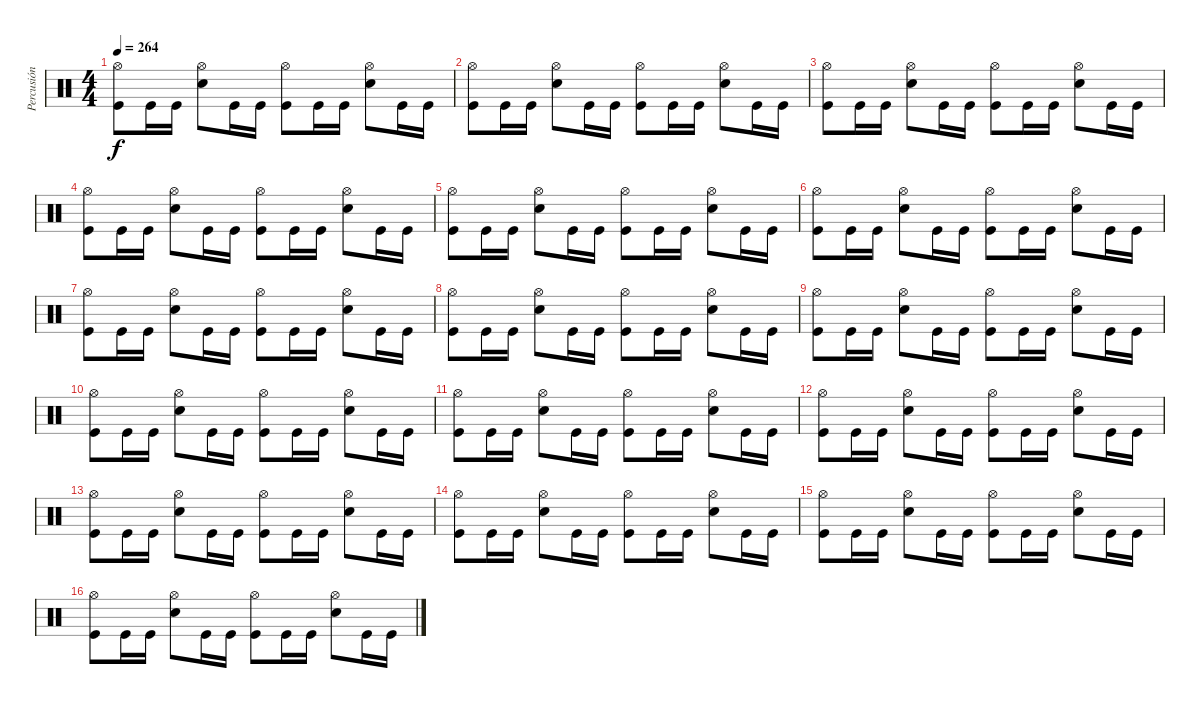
\track ("Percusión" "Percusión") {instrument percussion}
\staff {score}
\articulation defaults
\ts (4 4)
\tempo 264
\clef neutral
\ks c
("Hi-Hat (open)" "Kick (hit)").8{dy f} "Kick (hit)".16 "Kick (hit)".16 ("Hi-Hat (open)" "Snare (hit) 2").8 "Kick (hit)".16 "Kick (hit)".16 ("Hi-Hat (open)" "Kick (hit)").8 "Kick (hit)".16 "Kick (hit)".16 ("Hi-Hat (open)" "Snare (hit) 2").8 "Kick (hit)".16 "Kick (hit)".16 |
("Hi-Hat (open)" "Kick (hit)").8 "Kick (hit)".16 "Kick (hit)".16 ("Hi-Hat (open)" "Snare (hit) 2").8 "Kick (hit)".16 "Kick (hit)".16 ("Hi-Hat (open)" "Kick (hit)").8 "Kick (hit)".16 "Kick (hit)".16 ("Hi-Hat (open)" "Snare (hit) 2").8 "Kick (hit)".16 "Kick (hit)".16 |
("Hi-Hat (open)" "Kick (hit)").8 "Kick (hit)".16 "Kick (hit)".16 ("Hi-Hat (open)" "Snare (hit) 2").8 "Kick (hit)".16 "Kick (hit)".16 ("Hi-Hat (open)" "Kick (hit)").8 "Kick (hit)".16 "Kick (hit)".16 ("Hi-Hat (open)" "Snare (hit) 2").8 "Kick (hit)".16 "Kick (hit)".16 |
("Hi-Hat (open)" "Kick (hit)").8 "Kick (hit)".16 "Kick (hit)".16 ("Hi-Hat (open)" "Snare (hit) 2").8 "Kick (hit)".16 "Kick (hit)".16 ("Hi-Hat (open)" "Kick (hit)").8 "Kick (hit)".16 "Kick (hit)".16 ("Hi-Hat (open)" "Snare (hit) 2").8 "Kick (hit)".16 "Kick (hit)".16 |
("Hi-Hat (open)" "Kick (hit)").8 "Kick (hit)".16 "Kick (hit)".16 ("Hi-Hat (open)" "Snare (hit) 2").8 "Kick (hit)".16 "Kick (hit)".16 ("Hi-Hat (open)" "Kick (hit)").8 "Kick (hit)".16 "Kick (hit)".16 ("Hi-Hat (open)" "Snare (hit) 2").8 "Kick (hit)".16 "Kick (hit)".16 |
("Hi-Hat (open)" "Kick (hit)").8 "Kick (hit)".16 "Kick (hit)".16 ("Hi-Hat (open)" "Snare (hit) 2").8 "Kick (hit)".16 "Kick (hit)".16 ("Hi-Hat (open)" "Kick (hit)").8 "Kick (hit)".16 "Kick (hit)".16 ("Hi-Hat (open)" "Snare (hit) 2").8 "Kick (hit)".16 "Kick (hit)".16 |
("Hi-Hat (open)" "Kick (hit)").8 "Kick (hit)".16 "Kick (hit)".16 ("Hi-Hat (open)" "Snare (hit) 2").8 "Kick (hit)".16 "Kick (hit)".16 ("Hi-Hat (open)" "Kick (hit)").8 "Kick (hit)".16 "Kick (hit)".16 ("Hi-Hat (open)" "Snare (hit) 2").8 "Kick (hit)".16 "Kick (hit)".16 |
("Hi-Hat (open)" "Kick (hit)").8 "Kick (hit)".16 "Kick (hit)".16 ("Hi-Hat (open)" "Snare (hit) 2").8 "Kick (hit)".16 "Kick (hit)".16 ("Hi-Hat (open)" "Kick (hit)").8 "Kick (hit)".16 "Kick (hit)".16 ("Hi-Hat (open)" "Snare (hit) 2").8 "Kick (hit)".16 "Kick (hit)".16 |
("Hi-Hat (open)" "Kick (hit)").8 "Kick (hit)".16 "Kick (hit)".16 ("Hi-Hat (open)" "Snare (hit) 2").8 "Kick (hit)".16 "Kick (hit)".16 ("Hi-Hat (open)" "Kick (hit)").8 "Kick (hit)".16 "Kick (hit)".16 ("Hi-Hat (open)" "Snare (hit) 2").8 "Kick (hit)".16 "Kick (hit)".16 |
("Hi-Hat (open)" "Kick (hit)").8 "Kick (hit)".16 "Kick (hit)".16 ("Hi-Hat (open)" "Snare (hit) 2").8 "Kick (hit)".16 "Kick (hit)".16 ("Hi-Hat (open)" "Kick (hit)").8 "Kick (hit)".16 "Kick (hit)".16 ("Hi-Hat (open)" "Snare (hit) 2").8 "Kick (hit)".16 "Kick (hit)".16 |
("Hi-Hat (open)" "Kick (hit)").8 "Kick (hit)".16 "Kick (hit)".16 ("Hi-Hat (open)" "Snare (hit) 2").8 "Kick (hit)".16 "Kick (hit)".16 ("Hi-Hat (open)" "Kick (hit)").8 "Kick (hit)".16 "Kick (hit)".16 ("Hi-Hat (open)" "Snare (hit) 2").8 "Kick (hit)".16 "Kick (hit)".16 |
("Hi-Hat (open)" "Kick (hit)").8 "Kick (hit)".16 "Kick (hit)".16 ("Hi-Hat (open)" "Snare (hit) 2").8 "Kick (hit)".16 "Kick (hit)".16 ("Hi-Hat (open)" "Kick (hit)").8 "Kick (hit)".16 "Kick (hit)".16 ("Hi-Hat (open)" "Snare (hit) 2").8 "Kick (hit)".16 "Kick (hit)".16 |
("Hi-Hat (open)" "Kick (hit)").8 "Kick (hit)".16 "Kick (hit)".16 ("Hi-Hat (open)" "Snare (hit) 2").8 "Kick (hit)".16 "Kick (hit)".16 ("Hi-Hat (open)" "Kick (hit)").8 "Kick (hit)".16 "Kick (hit)".16 ("Hi-Hat (open)" "Snare (hit) 2").8 "Kick (hit)".16 "Kick (hit)".16 |
("Hi-Hat (open)" "Kick (hit)").8 "Kick (hit)".16 "Kick (hit)".16 ("Hi-Hat (open)" "Snare (hit) 2").8 "Kick (hit)".16 "Kick (hit)".16 ("Hi-Hat (open)" "Kick (hit)").8 "Kick (hit)".16 "Kick (hit)".16 ("Hi-Hat (open)" "Snare (hit) 2").8 "Kick (hit)".16 "Kick (hit)".16 |
("Hi-Hat (open)" "Kick (hit)").8 "Kick (hit)".16 "Kick (hit)".16 ("Hi-Hat (open)" "Snare (hit) 2").8 "Kick (hit)".16 "Kick (hit)".16 ("Hi-Hat (open)" "Kick (hit)").8 "Kick (hit)".16 "Kick (hit)".16 ("Hi-Hat (open)" "Snare (hit) 2").8 "Kick (hit)".16 "Kick (hit)".16 |
("Hi-Hat (open)" "Kick (hit)").8 "Kick (hit)".16 "Kick (hit)".16 ("Hi-Hat (open)" "Snare (hit) 2").8 "Kick (hit)".16 "Kick (hit)".16 ("Hi-Hat (open)" "Kick (hit)").8 "Kick (hit)".16 "Kick (hit)".16 ("Hi-Hat (open)" "Snare (hit) 2").8 "Kick (hit)".16 "Kick (hit)".16
